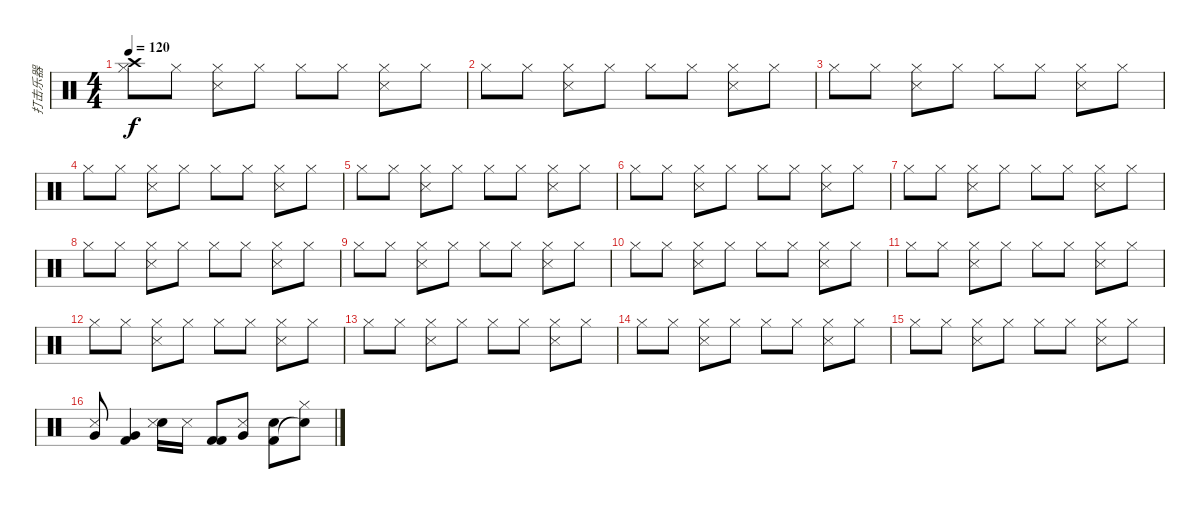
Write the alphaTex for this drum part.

\track ("打击乐器" "打击乐器") {instrument percussion}
\staff {score}
\articulation defaults
\ts (4 4)
\tempo 120
\clef neutral
\ks c
("Crash high (hit)" "Hi-Hat (closed)").8{dy f} "Hi-Hat (closed)".8 ("Snare (side stick) 3" "Hi-Hat (closed)").8 "Hi-Hat (closed)".8 "Hi-Hat (closed)".8 "Hi-Hat (closed)".8 ("Snare (side stick) 3" "Hi-Hat (closed)").8 "Hi-Hat (closed)".8 |
"Hi-Hat (closed)".8 "Hi-Hat (closed)".8 ("Snare (side stick) 3" "Hi-Hat (closed)").8 "Hi-Hat (closed)".8 "Hi-Hat (closed)".8 "Hi-Hat (closed)".8 ("Snare (side stick) 3" "Hi-Hat (closed)").8 "Hi-Hat (closed)".8 |
"Hi-Hat (closed)".8 "Hi-Hat (closed)".8 ("Snare (side stick) 3" "Hi-Hat (closed)").8 "Hi-Hat (closed)".8 "Hi-Hat (closed)".8 "Hi-Hat (closed)".8 ("Snare (side stick) 3" "Hi-Hat (closed)").8 "Hi-Hat (closed)".8 |
"Hi-Hat (closed)".8 "Hi-Hat (closed)".8 ("Snare (side stick) 3" "Hi-Hat (closed)").8 "Hi-Hat (closed)".8 "Hi-Hat (closed)".8 "Hi-Hat (closed)".8 ("Snare (side stick) 3" "Hi-Hat (closed)").8 "Hi-Hat (closed)".8 |
"Hi-Hat (closed)".8 "Hi-Hat (closed)".8 ("Snare (side stick) 3" "Hi-Hat (closed)").8 "Hi-Hat (closed)".8 "Hi-Hat (closed)".8 "Hi-Hat (closed)".8 ("Snare (side stick) 3" "Hi-Hat (closed)").8 "Hi-Hat (closed)".8 |
"Hi-Hat (closed)".8 "Hi-Hat (closed)".8 ("Snare (side stick) 3" "Hi-Hat (closed)").8 "Hi-Hat (closed)".8 "Hi-Hat (closed)".8 "Hi-Hat (closed)".8 ("Snare (side stick) 3" "Hi-Hat (closed)").8 "Hi-Hat (closed)".8 |
"Hi-Hat (closed)".8 "Hi-Hat (closed)".8 ("Snare (side stick) 3" "Hi-Hat (closed)").8 "Hi-Hat (closed)".8 "Hi-Hat (closed)".8 "Hi-Hat (closed)".8 ("Snare (side stick) 3" "Hi-Hat (closed)").8 "Hi-Hat (closed)".8 |
"Hi-Hat (closed)".8 "Hi-Hat (closed)".8 ("Snare (side stick) 3" "Hi-Hat (closed)").8 "Hi-Hat (closed)".8 "Hi-Hat (closed)".8 "Hi-Hat (closed)".8 ("Snare (side stick) 3" "Hi-Hat (closed)").8 "Hi-Hat (closed)".8 |
"Hi-Hat (closed)".8 "Hi-Hat (closed)".8 ("Snare (side stick) 3" "Hi-Hat (closed)").8 "Hi-Hat (closed)".8 "Hi-Hat (closed)".8 "Hi-Hat (closed)".8 ("Snare (side stick) 3" "Hi-Hat (closed)").8 "Hi-Hat (closed)".8 |
"Hi-Hat (closed)".8 "Hi-Hat (closed)".8 ("Snare (side stick) 3" "Hi-Hat (closed)").8 "Hi-Hat (closed)".8 "Hi-Hat (closed)".8 "Hi-Hat (closed)".8 ("Snare (side stick) 3" "Hi-Hat (closed)").8 "Hi-Hat (closed)".8 |
"Hi-Hat (closed)".8 "Hi-Hat (closed)".8 ("Snare (side stick) 3" "Hi-Hat (closed)").8 "Hi-Hat (closed)".8 "Hi-Hat (closed)".8 "Hi-Hat (closed)".8 ("Snare (side stick) 3" "Hi-Hat (closed)").8 "Hi-Hat (closed)".8 |
"Hi-Hat (closed)".8 "Hi-Hat (closed)".8 ("Snare (side stick) 3" "Hi-Hat (closed)").8 "Hi-Hat (closed)".8 "Hi-Hat (closed)".8 "Hi-Hat (closed)".8 ("Snare (side stick) 3" "Hi-Hat (closed)").8 "Hi-Hat (closed)".8 |
"Hi-Hat (closed)".8 "Hi-Hat (closed)".8 ("Snare (side stick) 3" "Hi-Hat (closed)").8 "Hi-Hat (closed)".8 "Hi-Hat (closed)".8 "Hi-Hat (closed)".8 ("Snare (side stick) 3" "Hi-Hat (closed)").8 "Hi-Hat (closed)".8 |
"Hi-Hat (closed)".8 "Hi-Hat (closed)".8 ("Snare (side stick) 3" "Hi-Hat (closed)").8 "Hi-Hat (closed)".8 "Hi-Hat (closed)".8 "Hi-Hat (closed)".8 ("Snare (side stick) 3" "Hi-Hat (closed)").8 "Hi-Hat (closed)".8 |
"Hi-Hat (closed)".8 "Hi-Hat (closed)".8 ("Snare (side stick) 3" "Hi-Hat (closed)").8 "Hi-Hat (closed)".8 "Hi-Hat (closed)".8 "Hi-Hat (closed)".8 ("Snare (side stick) 3" "Hi-Hat (closed)").8 "Hi-Hat (closed)".8 |
("Metronome (hit)" "Very Low Tom (hit)").8 ("Very Low Tom (hit)" "Kick (hit) 2").4 ("Snare (hit) 2" "Snare (side stick) 3").16 "Snare (side stick) 3".16 ("Kick (hit) 2" "Kick (hit) 2").8 ("Very Low Tom (hit)" "Snare (side stick) 3").8 ("Snare (hit) 2" "Kick (hit) 2").8 ("Hi-Hat (closed)" "Snare (hit)"{t}).8
